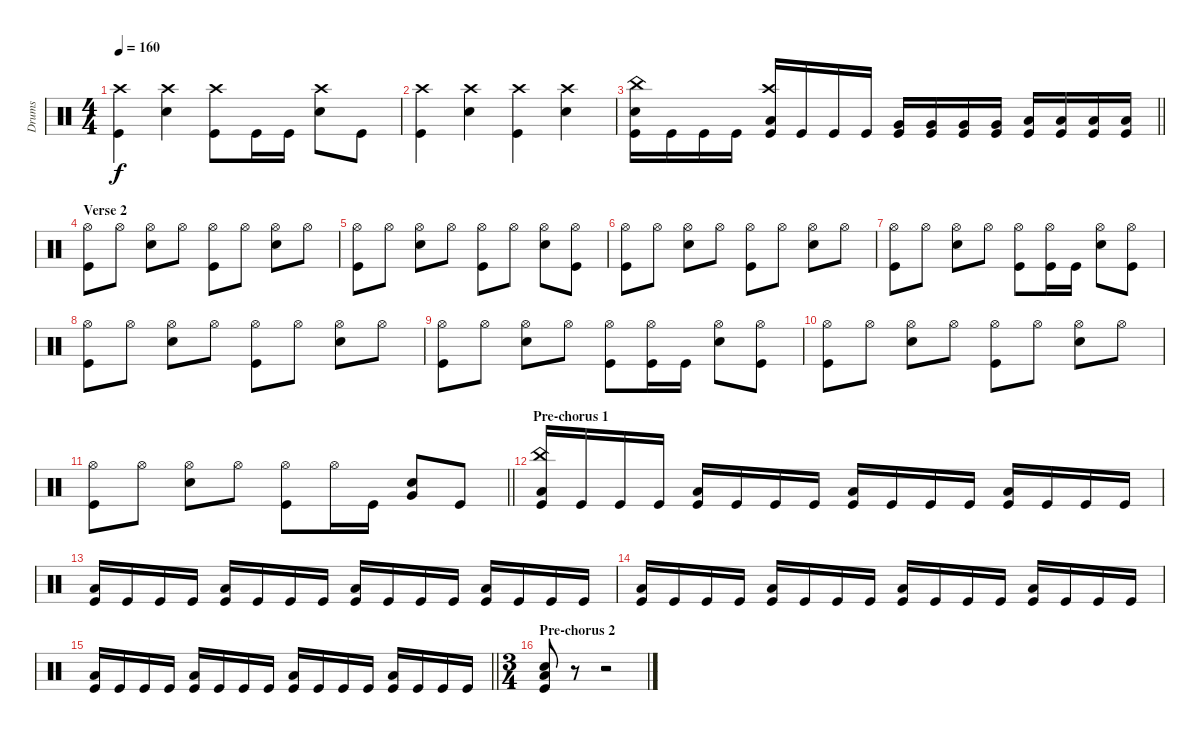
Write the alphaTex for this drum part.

\track ("Drums" "Drums") {instrument percussion}
\staff {score}
\articulation defaults
\ts (4 4)
\tempo 160
\clef neutral
\ks c
("Kick (hit)" "Crash high (hit)").4{dy f} ("Snare (hit) 2" "Crash high (hit)").4 ("Kick (hit)" "Crash high (hit)").8 "Kick (hit)".16 "Kick (hit)".16 ("Snare (hit) 2" "Crash high (hit)").8 "Kick (hit)".8 |
("Kick (hit)" "Crash high (hit)").4 ("Snare (hit) 2" "Crash high (hit)").4 ("Kick (hit)" "Crash high (hit)").4 ("Snare (hit) 2" "Crash high (hit)").4 |
\barLineRight lightlight
("Kick (hit)" "China (hit)" "Snare (hit) 2").16 "Kick (hit)".16 "Kick (hit)".16 "Kick (hit)".16 ("Kick (hit)" "Low Tom (hit)" "Crash high (hit)").16 "Kick (hit)".16 "Kick (hit)".16 "Kick (hit)".16 ("Kick (hit)" "Very Low Tom (hit)").16 ("Kick (hit)" "Very Low Tom (hit)").16 ("Kick (hit)" "Very Low Tom (hit)").16 ("Kick (hit)" "Very Low Tom (hit)").16 ("Kick (hit)" "Low Floor Tom (hit)").16 ("Kick (hit)" "Low Floor Tom (hit)").16 ("Kick (hit)" "Low Floor Tom (hit)").16 ("Kick (hit)" "Low Floor Tom (hit)").16 |
\section ("" "Verse 2")
("Kick (hit)" "Hi-Hat (open)").8 "Hi-Hat (open)".8 ("Snare (hit) 2" "Hi-Hat (open)").8 "Hi-Hat (open)".8 ("Kick (hit)" "Hi-Hat (open)").8 "Hi-Hat (open)".8 ("Snare (hit) 2" "Hi-Hat (open)").8 "Hi-Hat (open)".8 |
("Kick (hit)" "Hi-Hat (open)").8 "Hi-Hat (open)".8 ("Snare (hit) 2" "Hi-Hat (open)").8 "Hi-Hat (open)".8 ("Kick (hit)" "Hi-Hat (open)").8 "Hi-Hat (open)".8 ("Snare (hit) 2" "Hi-Hat (open)").8 ("Hi-Hat (open)" "Kick (hit)").8 |
("Kick (hit)" "Hi-Hat (open)").8 "Hi-Hat (open)".8 ("Snare (hit) 2" "Hi-Hat (open)").8 "Hi-Hat (open)".8 ("Kick (hit)" "Hi-Hat (open)").8 "Hi-Hat (open)".8 ("Snare (hit) 2" "Hi-Hat (open)").8 "Hi-Hat (open)".8 |
("Kick (hit)" "Hi-Hat (open)").8 "Hi-Hat (open)".8 ("Snare (hit) 2" "Hi-Hat (open)").8 "Hi-Hat (open)".8 ("Kick (hit)" "Hi-Hat (open)").8 ("Hi-Hat (open)" "Kick (hit)").16 "Kick (hit)".16 ("Snare (hit) 2" "Hi-Hat (open)").8 ("Kick (hit)" "Hi-Hat (open)").8 |
("Kick (hit)" "Hi-Hat (open)").8 "Hi-Hat (open)".8 ("Snare (hit) 2" "Hi-Hat (open)").8 "Hi-Hat (open)".8 ("Kick (hit)" "Hi-Hat (open)").8 "Hi-Hat (open)".8 ("Snare (hit) 2" "Hi-Hat (open)").8 "Hi-Hat (open)".8 |
("Kick (hit)" "Hi-Hat (open)").8 "Hi-Hat (open)".8 ("Snare (hit) 2" "Hi-Hat (open)").8 "Hi-Hat (open)".8 ("Kick (hit)" "Hi-Hat (open)").8 ("Hi-Hat (open)" "Kick (hit)").16 "Kick (hit)".16 ("Snare (hit) 2" "Hi-Hat (open)").8 ("Kick (hit)" "Hi-Hat (open)").8 |
("Kick (hit)" "Hi-Hat (open)").8 "Hi-Hat (open)".8 ("Snare (hit) 2" "Hi-Hat (open)").8 "Hi-Hat (open)".8 ("Kick (hit)" "Hi-Hat (open)").8 "Hi-Hat (open)".8 ("Snare (hit) 2" "Hi-Hat (open)").8 "Hi-Hat (open)".8 |
\barLineRight lightlight
("Kick (hit)" "Hi-Hat (open)").8 "Hi-Hat (open)".8 ("Snare (hit) 2" "Hi-Hat (open)").8 "Hi-Hat (open)".8 ("Kick (hit)" "Hi-Hat (open)").8 "Hi-Hat (open)".16 "Kick (hit)".16 ("Snare (hit) 2" "Very Low Tom (hit)").8 "Kick (hit)".8 |
\section ("" "Pre-chorus 1")
("Kick (hit)" "China (hit)" "Low Floor Tom (hit)").16 "Kick (hit)".16 "Kick (hit)".16 "Kick (hit)".16 ("Kick (hit)" "Low Floor Tom (hit)").16 "Kick (hit)".16 "Kick (hit)".16 "Kick (hit)".16 ("Kick (hit)" "Low Floor Tom (hit)").16 "Kick (hit)".16 "Kick (hit)".16 "Kick (hit)".16 ("Kick (hit)" "Low Floor Tom (hit)").16 "Kick (hit)".16 "Kick (hit)".16 "Kick (hit)".16 |
("Kick (hit)" "Low Floor Tom (hit)").16 "Kick (hit)".16 "Kick (hit)".16 "Kick (hit)".16 ("Kick (hit)" "Low Floor Tom (hit)").16 "Kick (hit)".16 "Kick (hit)".16 "Kick (hit)".16 ("Kick (hit)" "Low Floor Tom (hit)").16 "Kick (hit)".16 "Kick (hit)".16 "Kick (hit)".16 ("Kick (hit)" "Low Floor Tom (hit)").16 "Kick (hit)".16 "Kick (hit)".16 "Kick (hit)".16 |
("Kick (hit)" "Low Floor Tom (hit)").16 "Kick (hit)".16 "Kick (hit)".16 "Kick (hit)".16 ("Kick (hit)" "Low Floor Tom (hit)").16 "Kick (hit)".16 "Kick (hit)".16 "Kick (hit)".16 ("Kick (hit)" "Low Floor Tom (hit)").16 "Kick (hit)".16 "Kick (hit)".16 "Kick (hit)".16 ("Kick (hit)" "Low Floor Tom (hit)").16 "Kick (hit)".16 "Kick (hit)".16 "Kick (hit)".16 |
\barLineRight lightlight
("Kick (hit)" "Low Floor Tom (hit)").16 "Kick (hit)".16 "Kick (hit)".16 "Kick (hit)".16 ("Kick (hit)" "Low Floor Tom (hit)").16 "Kick (hit)".16 "Kick (hit)".16 "Kick (hit)".16 ("Kick (hit)" "Low Floor Tom (hit)").16 "Kick (hit)".16 "Kick (hit)".16 "Kick (hit)".16 ("Kick (hit)" "Low Floor Tom (hit)").16 "Kick (hit)".16 "Kick (hit)".16 "Kick (hit)".16 |
\ts (3 4)
\section ("" "Pre-chorus 2")
("Snare (hit) 2" "Kick (hit)" "Low Floor Tom (hit)").8 r.8 r.2
